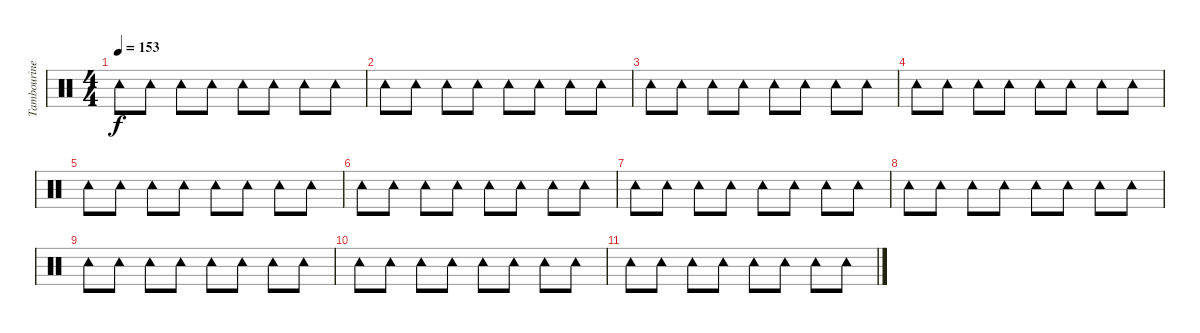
\track ("Tambourine" "Tambourine") {instrument percussion}
\staff {score}
\articulation defaults
\ts (4 4)
\tempo 153
\clef neutral
\ks c "Tambourine (hit)".8{dy f} "Tambourine (hit)".8 "Tambourine (hit)".8 "Tambourine (hit)".8 "Tambourine (hit)".8 "Tambourine (hit)".8 "Tambourine (hit)".8 "Tambourine (hit)".8
|
"Tambourine (hit)".8 "Tambourine (hit)".8 "Tambourine (hit)".8 "Tambourine (hit)".8 "Tambourine (hit)".8 "Tambourine (hit)".8 "Tambourine (hit)".8 "Tambourine (hit)".8 |
"Tambourine (hit)".8 "Tambourine (hit)".8 "Tambourine (hit)".8 "Tambourine (hit)".8 "Tambourine (hit)".8 "Tambourine (hit)".8 "Tambourine (hit)".8 "Tambourine (hit)".8 |
"Tambourine (hit)".8 "Tambourine (hit)".8 "Tambourine (hit)".8 "Tambourine (hit)".8 "Tambourine (hit)".8 "Tambourine (hit)".8 "Tambourine (hit)".8 "Tambourine (hit)".8 |
"Tambourine (hit)".8 "Tambourine (hit)".8 "Tambourine (hit)".8 "Tambourine (hit)".8 "Tambourine (hit)".8 "Tambourine (hit)".8 "Tambourine (hit)".8 "Tambourine (hit)".8 |
"Tambourine (hit)".8 "Tambourine (hit)".8 "Tambourine (hit)".8 "Tambourine (hit)".8 "Tambourine (hit)".8 "Tambourine (hit)".8 "Tambourine (hit)".8 "Tambourine (hit)".8 |
"Tambourine (hit)".8 "Tambourine (hit)".8 "Tambourine (hit)".8 "Tambourine (hit)".8 "Tambourine (hit)".8 "Tambourine (hit)".8 "Tambourine (hit)".8 "Tambourine (hit)".8 |
"Tambourine (hit)".8 "Tambourine (hit)".8 "Tambourine (hit)".8 "Tambourine (hit)".8 "Tambourine (hit)".8 "Tambourine (hit)".8 "Tambourine (hit)".8 "Tambourine (hit)".8 |
"Tambourine (hit)".8 "Tambourine (hit)".8 "Tambourine (hit)".8 "Tambourine (hit)".8 "Tambourine (hit)".8 "Tambourine (hit)".8 "Tambourine (hit)".8 "Tambourine (hit)".8 |
"Tambourine (hit)".8 "Tambourine (hit)".8 "Tambourine (hit)".8 "Tambourine (hit)".8 "Tambourine (hit)".8 "Tambourine (hit)".8 "Tambourine (hit)".8 "Tambourine (hit)".8 |
"Tambourine (hit)".8 "Tambourine (hit)".8 "Tambourine (hit)".8 "Tambourine (hit)".8 "Tambourine (hit)".8 "Tambourine (hit)".8 "Tambourine (hit)".8 "Tambourine (hit)".8
